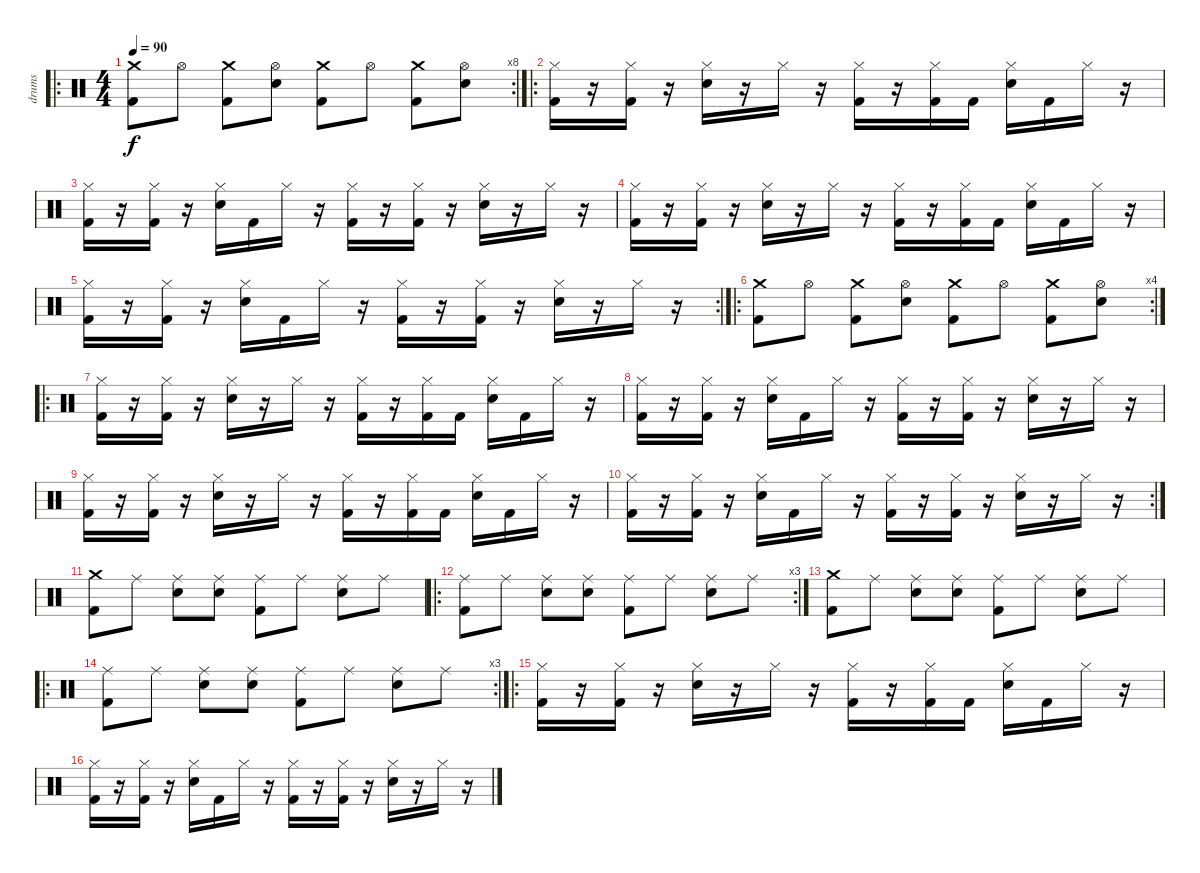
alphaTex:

\track ("drums" "drums") {instrument percussion}
\staff {score}
\articulation defaults
\ro
\rc 8
\ts (4 4)
\tempo 90
\clef neutral
\ks c
("Crash medium (hit)" "Kick (hit) 2").8{dy f} "Hi-Hat (open)".8 ("Crash medium (hit)" "Kick (hit) 2").8 ("Hi-Hat (open)" "Electric Snare (hit)").8 ("Crash medium (hit)" "Kick (hit) 2").8 "Hi-Hat (open)".8 ("Crash medium (hit)" "Kick (hit) 2").8 ("Hi-Hat (open)" "Electric Snare (hit)").8 |
\ro
("Hi-Hat (closed)" "Kick (hit) 2").16 r.16 ("Hi-Hat (closed)" "Kick (hit) 2").16 r.16 ("Hi-Hat (closed)" "Electric Snare (hit)").16 r.16 "Hi-Hat (closed)".16 r.16 ("Hi-Hat (closed)" "Kick (hit) 2").16 r.16 ("Hi-Hat (closed)" "Kick (hit) 2").16 "Kick (hit) 2".16 ("Hi-Hat (closed)" "Electric Snare (hit)").16 "Kick (hit) 2".16 "Hi-Hat (closed)".16 r.16 |
("Hi-Hat (closed)" "Kick (hit) 2").16 r.16 ("Hi-Hat (closed)" "Kick (hit) 2").16 r.16 ("Hi-Hat (closed)" "Electric Snare (hit)").16 "Kick (hit) 2".16 "Hi-Hat (closed)".16 r.16 ("Hi-Hat (closed)" "Kick (hit) 2").16 r.16 ("Hi-Hat (closed)" "Kick (hit) 2").16 r.16 ("Hi-Hat (closed)" "Electric Snare (hit)").16 r.16 "Hi-Hat (closed)".16 r.16 |
("Hi-Hat (closed)" "Kick (hit) 2").16 r.16 ("Hi-Hat (closed)" "Kick (hit) 2").16 r.16 ("Hi-Hat (closed)" "Electric Snare (hit)").16 r.16 "Hi-Hat (closed)".16 r.16 ("Hi-Hat (closed)" "Kick (hit) 2").16 r.16 ("Hi-Hat (closed)" "Kick (hit) 2").16 "Kick (hit) 2".16 ("Hi-Hat (closed)" "Electric Snare (hit)").16 "Kick (hit) 2".16 "Hi-Hat (closed)".16 r.16 |
\rc 2
("Hi-Hat (closed)" "Kick (hit) 2").16 r.16 ("Hi-Hat (closed)" "Kick (hit) 2").16 r.16 ("Hi-Hat (closed)" "Electric Snare (hit)").16 "Kick (hit) 2".16 "Hi-Hat (closed)".16 r.16 ("Hi-Hat (closed)" "Kick (hit) 2").16 r.16 ("Hi-Hat (closed)" "Kick (hit) 2").16 r.16 ("Hi-Hat (closed)" "Electric Snare (hit)").16 r.16 "Hi-Hat (closed)".16 r.16 |
\ro
\rc 4
("Crash medium (hit)" "Kick (hit) 2").8 "Hi-Hat (open)".8 ("Crash medium (hit)" "Kick (hit) 2").8 ("Hi-Hat (open)" "Electric Snare (hit)").8 ("Crash medium (hit)" "Kick (hit) 2").8 "Hi-Hat (open)".8 ("Crash medium (hit)" "Kick (hit) 2").8 ("Hi-Hat (open)" "Electric Snare (hit)").8 |
\ro
("Hi-Hat (closed)" "Kick (hit) 2").16 r.16 ("Hi-Hat (closed)" "Kick (hit) 2").16 r.16 ("Hi-Hat (closed)" "Electric Snare (hit)").16 r.16 "Hi-Hat (closed)".16 r.16 ("Hi-Hat (closed)" "Kick (hit) 2").16 r.16 ("Hi-Hat (closed)" "Kick (hit) 2").16 "Kick (hit) 2".16 ("Hi-Hat (closed)" "Electric Snare (hit)").16 "Kick (hit) 2".16 "Hi-Hat (closed)".16 r.16 |
("Hi-Hat (closed)" "Kick (hit) 2").16 r.16 ("Hi-Hat (closed)" "Kick (hit) 2").16 r.16 ("Hi-Hat (closed)" "Electric Snare (hit)").16 "Kick (hit) 2".16 "Hi-Hat (closed)".16 r.16 ("Hi-Hat (closed)" "Kick (hit) 2").16 r.16 ("Hi-Hat (closed)" "Kick (hit) 2").16 r.16 ("Hi-Hat (closed)" "Electric Snare (hit)").16 r.16 "Hi-Hat (closed)".16 r.16 |
("Hi-Hat (closed)" "Kick (hit) 2").16 r.16 ("Hi-Hat (closed)" "Kick (hit) 2").16 r.16 ("Hi-Hat (closed)" "Electric Snare (hit)").16 r.16 "Hi-Hat (closed)".16 r.16 ("Hi-Hat (closed)" "Kick (hit) 2").16 r.16 ("Hi-Hat (closed)" "Kick (hit) 2").16 "Kick (hit) 2".16 ("Hi-Hat (closed)" "Electric Snare (hit)").16 "Kick (hit) 2".16 "Hi-Hat (closed)".16 r.16 |
\rc 2
("Hi-Hat (closed)" "Kick (hit) 2").16 r.16 ("Hi-Hat (closed)" "Kick (hit) 2").16 r.16 ("Hi-Hat (closed)" "Electric Snare (hit)").16 "Kick (hit) 2".16 "Hi-Hat (closed)".16 r.16 ("Hi-Hat (closed)" "Kick (hit) 2").16 r.16 ("Hi-Hat (closed)" "Kick (hit) 2").16 r.16 ("Hi-Hat (closed)" "Electric Snare (hit)").16 r.16 "Hi-Hat (closed)".16 r.16 |
("Crash medium (hit)" "Kick (hit) 2").8 "Ride (middle)".8 ("Ride (middle)" "Electric Snare (hit)").8 ("Ride (middle)" "Electric Snare (hit)").8 ("Ride (middle)" "Kick (hit) 2").8 "Ride (middle)".8 ("Ride (middle)" "Electric Snare (hit)").8 "Ride (middle)".8 |
\ro
\rc 3
("Ride (middle)" "Kick (hit) 2").8 "Ride (middle)".8 ("Ride (middle)" "Electric Snare (hit)").8 ("Ride (middle)" "Electric Snare (hit)").8 ("Ride (middle)" "Kick (hit) 2").8 "Ride (middle)".8 ("Ride (middle)" "Electric Snare (hit)").8 "Ride (middle)".8 |
("Crash medium (hit)" "Kick (hit) 2").8 "Ride (middle)".8 ("Ride (middle)" "Electric Snare (hit)").8 ("Ride (middle)" "Electric Snare (hit)").8 ("Ride (middle)" "Kick (hit) 2").8 "Ride (middle)".8 ("Ride (middle)" "Electric Snare (hit)").8 "Ride (middle)".8 |
\ro
\rc 3
("Ride (middle)" "Kick (hit) 2").8 "Ride (middle)".8 ("Ride (middle)" "Electric Snare (hit)").8 ("Ride (middle)" "Electric Snare (hit)").8 ("Ride (middle)" "Kick (hit) 2").8 "Ride (middle)".8 ("Ride (middle)" "Electric Snare (hit)").8 "Ride (middle)".8 |
\ro
("Hi-Hat (closed)" "Kick (hit) 2").16 r.16 ("Hi-Hat (closed)" "Kick (hit) 2").16 r.16 ("Hi-Hat (closed)" "Electric Snare (hit)").16 r.16 "Hi-Hat (closed)".16 r.16 ("Hi-Hat (closed)" "Kick (hit) 2").16 r.16 ("Hi-Hat (closed)" "Kick (hit) 2").16 "Kick (hit) 2".16 ("Hi-Hat (closed)" "Electric Snare (hit)").16 "Kick (hit) 2".16 "Hi-Hat (closed)".16 r.16 |
("Hi-Hat (closed)" "Kick (hit) 2").16 r.16 ("Hi-Hat (closed)" "Kick (hit) 2").16 r.16 ("Hi-Hat (closed)" "Electric Snare (hit)").16 "Kick (hit) 2".16 "Hi-Hat (closed)".16 r.16 ("Hi-Hat (closed)" "Kick (hit) 2").16 r.16 ("Hi-Hat (closed)" "Kick (hit) 2").16 r.16 ("Hi-Hat (closed)" "Electric Snare (hit)").16 r.16 "Hi-Hat (closed)".16 r.16
